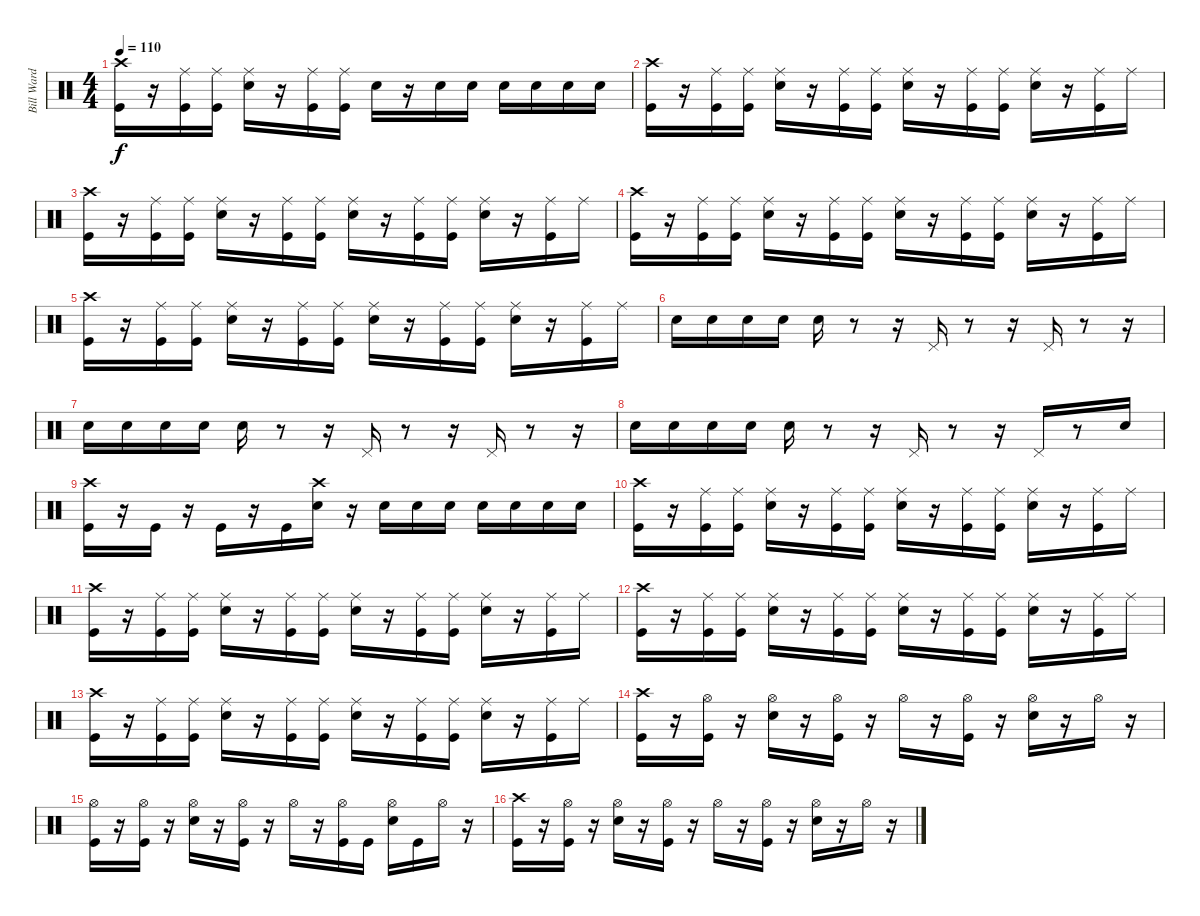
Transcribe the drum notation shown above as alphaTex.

\track ("Bill Ward" "Bill Ward") {instrument percussion}
\staff {score}
\articulation defaults
\ts (4 4)
\tempo 110
\clef neutral
\ks c
("Kick (hit)" "Crash high (hit)").16{dy f} r.16 ("Kick (hit)" "Ride (middle)").16 ("Kick (hit)" "Ride (middle)").16 ("Ride (middle)" "Snare (hit) 2").16 r.16 ("Kick (hit)" "Ride (middle)").16 ("Kick (hit)" "Ride (middle)").16 "Snare (hit) 2".16 r.16 "Snare (hit) 2".16 "Snare (hit) 2".16 "Snare (hit) 2".16 "Snare (hit) 2".16 "Snare (hit) 2".16 "Snare (hit) 2".16 |
("Crash high (hit)" "Kick (hit)").16 r.16 ("Kick (hit)" "Ride (middle)").16 ("Kick (hit)" "Ride (middle)").16 ("Ride (middle)" "Snare (hit) 2").16 r.16 ("Kick (hit)" "Ride (middle)").16 ("Kick (hit)" "Ride (middle)").16 ("Ride (middle)" "Snare (hit) 2").16 r.16 ("Kick (hit)" "Ride (middle)").16 ("Kick (hit)" "Ride (middle)").16 ("Ride (middle)" "Snare (hit) 2").16 r.16 ("Kick (hit)" "Ride (middle)").16 "Ride (middle)".16 |
("Crash high (hit)" "Kick (hit)").16 r.16 ("Kick (hit)" "Ride (middle)").16 ("Kick (hit)" "Ride (middle)").16 ("Ride (middle)" "Snare (hit) 2").16 r.16 ("Kick (hit)" "Ride (middle)").16 ("Kick (hit)" "Ride (middle)").16 ("Ride (middle)" "Snare (hit) 2").16 r.16 ("Kick (hit)" "Ride (middle)").16 ("Kick (hit)" "Ride (middle)").16 ("Ride (middle)" "Snare (hit) 2").16 r.16 ("Kick (hit)" "Ride (middle)").16 "Ride (middle)".16 |
("Crash high (hit)" "Kick (hit)").16 r.16 ("Kick (hit)" "Ride (middle)").16 ("Kick (hit)" "Ride (middle)").16 ("Ride (middle)" "Snare (hit) 2").16 r.16 ("Kick (hit)" "Ride (middle)").16 ("Kick (hit)" "Ride (middle)").16 ("Ride (middle)" "Snare (hit) 2").16 r.16 ("Kick (hit)" "Ride (middle)").16 ("Kick (hit)" "Ride (middle)").16 ("Ride (middle)" "Snare (hit) 2").16 r.16 ("Kick (hit)" "Ride (middle)").16 "Ride (middle)".16 |
("Crash high (hit)" "Kick (hit)").16 r.16 ("Kick (hit)" "Ride (middle)").16 ("Kick (hit)" "Ride (middle)").16 ("Ride (middle)" "Snare (hit) 2").16 r.16 ("Kick (hit)" "Ride (middle)").16 ("Kick (hit)" "Ride (middle)").16 ("Ride (middle)" "Snare (hit) 2").16 r.16 ("Kick (hit)" "Ride (middle)").16 ("Kick (hit)" "Ride (middle)").16 ("Ride (middle)" "Snare (hit) 2").16 r.16 ("Kick (hit)" "Ride (middle)").16 "Ride (middle)".16 |
"Snare (hit) 2".16 "Snare (hit) 2".16 "Snare (hit) 2".16 "Snare (hit) 2".16 "Snare (hit) 2".16 r.8 r.16 "Pedal Hi-Hat (hit)".16 r.8 r.16 "Pedal Hi-Hat (hit)".16 r.8 r.16 |
"Snare (hit) 2".16 "Snare (hit) 2".16 "Snare (hit) 2".16 "Snare (hit) 2".16 "Snare (hit) 2".16 r.8 r.16 "Pedal Hi-Hat (hit)".16 r.8 r.16 "Pedal Hi-Hat (hit)".16 r.8 r.16 |
"Snare (hit) 2".16 "Snare (hit) 2".16 "Snare (hit) 2".16 "Snare (hit) 2".16 "Snare (hit) 2".16 r.8 r.16 "Pedal Hi-Hat (hit)".16 r.8 r.16 "Pedal Hi-Hat (hit)".16 r.8 "Snare (hit) 2".16 |
("Kick (hit)" "Crash high (hit)").16 r.16 "Kick (hit)".16 r.16 "Kick (hit)".16 r.16 "Kick (hit)".16 ("Crash high (hit)" "Snare (hit) 2").16 r.16 "Snare (hit) 2".16 "Snare (hit) 2".16 "Snare (hit) 2".16 "Snare (hit) 2".16 "Snare (hit) 2".16 "Snare (hit) 2".16 "Snare (hit) 2".16 |
("Crash high (hit)" "Kick (hit)").16 r.16 ("Kick (hit)" "Ride (middle)").16 ("Kick (hit)" "Ride (middle)").16 ("Ride (middle)" "Snare (hit) 2").16 r.16 ("Kick (hit)" "Ride (middle)").16 ("Kick (hit)" "Ride (middle)").16 ("Ride (middle)" "Snare (hit) 2").16 r.16 ("Kick (hit)" "Ride (middle)").16 ("Kick (hit)" "Ride (middle)").16 ("Ride (middle)" "Snare (hit) 2").16 r.16 ("Kick (hit)" "Ride (middle)").16 "Ride (middle)".16 |
("Crash high (hit)" "Kick (hit)").16 r.16 ("Kick (hit)" "Ride (middle)").16 ("Kick (hit)" "Ride (middle)").16 ("Ride (middle)" "Snare (hit) 2").16 r.16 ("Kick (hit)" "Ride (middle)").16 ("Kick (hit)" "Ride (middle)").16 ("Ride (middle)" "Snare (hit) 2").16 r.16 ("Kick (hit)" "Ride (middle)").16 ("Kick (hit)" "Ride (middle)").16 ("Ride (middle)" "Snare (hit) 2").16 r.16 ("Kick (hit)" "Ride (middle)").16 "Ride (middle)".16 |
("Crash high (hit)" "Kick (hit)").16 r.16 ("Kick (hit)" "Ride (middle)").16 ("Kick (hit)" "Ride (middle)").16 ("Ride (middle)" "Snare (hit) 2").16 r.16 ("Kick (hit)" "Ride (middle)").16 ("Kick (hit)" "Ride (middle)").16 ("Ride (middle)" "Snare (hit) 2").16 r.16 ("Kick (hit)" "Ride (middle)").16 ("Kick (hit)" "Ride (middle)").16 ("Ride (middle)" "Snare (hit) 2").16 r.16 ("Kick (hit)" "Ride (middle)").16 "Ride (middle)".16 |
("Crash high (hit)" "Kick (hit)").16 r.16 ("Kick (hit)" "Ride (middle)").16 ("Kick (hit)" "Ride (middle)").16 ("Ride (middle)" "Snare (hit) 2").16 r.16 ("Kick (hit)" "Ride (middle)").16 ("Kick (hit)" "Ride (middle)").16 ("Ride (middle)" "Snare (hit) 2").16 r.16 ("Kick (hit)" "Ride (middle)").16 ("Kick (hit)" "Ride (middle)").16 ("Ride (middle)" "Snare (hit) 2").16 r.16 ("Kick (hit)" "Ride (middle)").16 "Ride (middle)".16 |
("Crash high (hit)" "Kick (hit)").16 r.16 ("Kick (hit)" "Hi-Hat (open)").16 r.16 ("Snare (hit) 2" "Hi-Hat (open)").16 r.16 ("Kick (hit)" "Hi-Hat (open)").16 r.16 "Hi-Hat (open)".16 r.16 ("Kick (hit)" "Hi-Hat (open)").16 r.16 ("Hi-Hat (open)" "Snare (hit) 2").16 r.16 "Hi-Hat (open)".16 r.16 |
("Kick (hit)" "Hi-Hat (open)").16 r.16 ("Kick (hit)" "Hi-Hat (open)").16 r.16 ("Snare (hit) 2" "Hi-Hat (open)").16 r.16 ("Kick (hit)" "Hi-Hat (open)").16 r.16 "Hi-Hat (open)".16 r.16 ("Kick (hit)" "Hi-Hat (open)").16 "Kick (hit)".16 ("Hi-Hat (open)" "Snare (hit) 2").16 "Kick (hit)".16 "Hi-Hat (open)".16 r.16 |
("Kick (hit)" "Crash high (hit)").16 r.16 ("Kick (hit)" "Hi-Hat (open)").16 r.16 ("Snare (hit) 2" "Hi-Hat (open)").16 r.16 ("Kick (hit)" "Hi-Hat (open)").16 r.16 "Hi-Hat (open)".16 r.16 ("Kick (hit)" "Hi-Hat (open)").16 r.16 ("Hi-Hat (open)" "Snare (hit) 2").16 r.16 "Hi-Hat (open)".16 r.16
